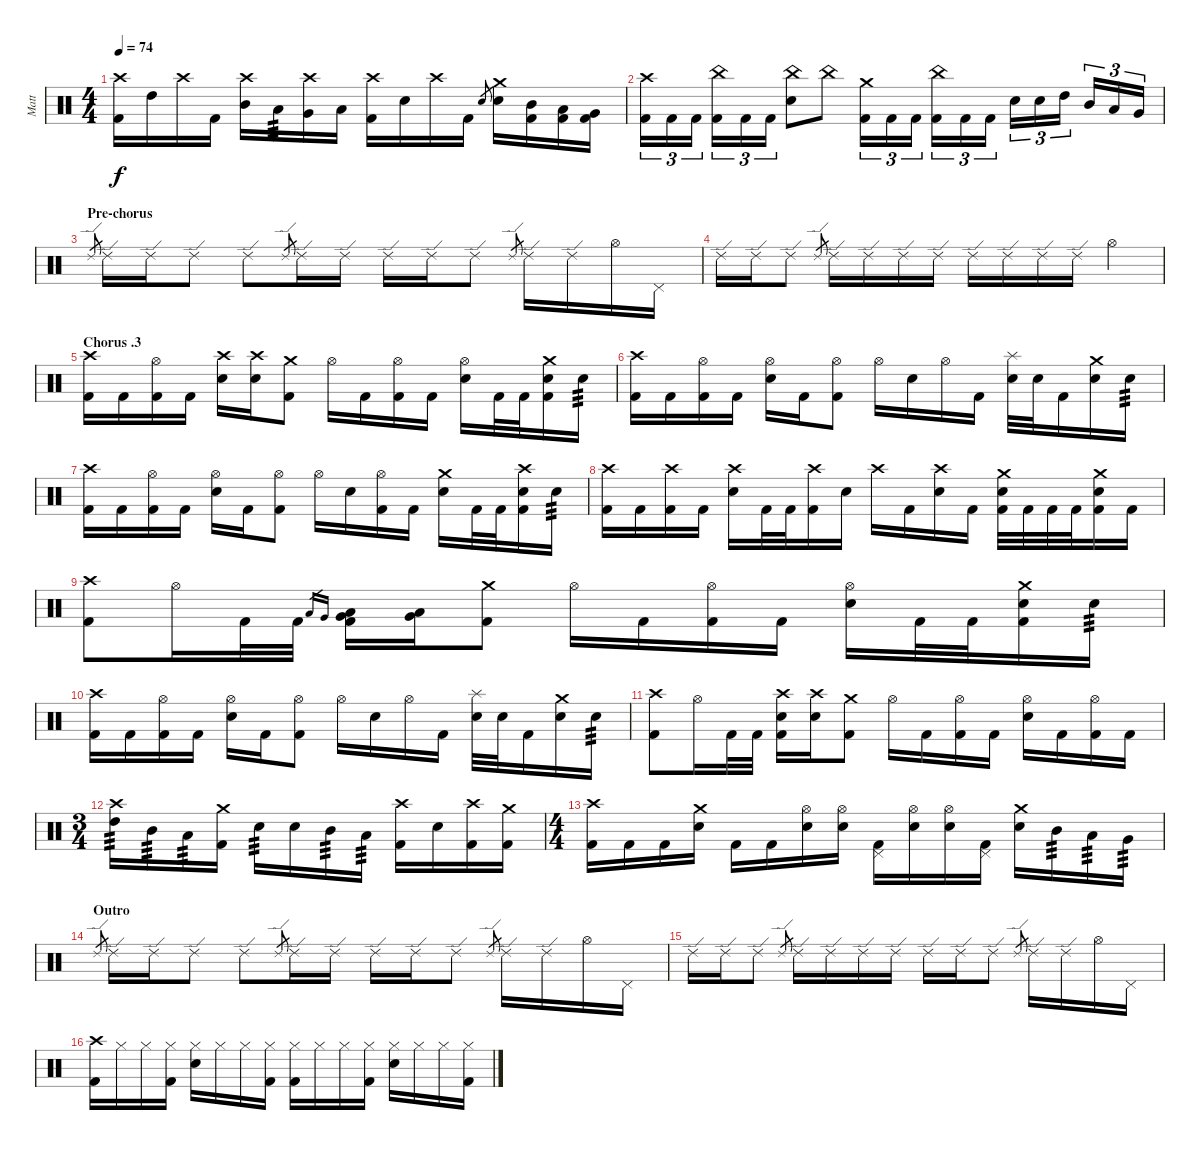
\track ("Matt" "Matt") {instrument percussion}
\staff {score}
\articulation defaults
\ts (4 4)
\tempo 74
\clef neutral
\ks c
("Crash high (hit)" "Kick (hit) 2").16{dy f} "High Tom (hit)".16 "Crash high (hit)".16 "Kick (hit) 2".16 ("Crash high (hit)" "Mid Tom (hit)").16 "Low Tom (hit)".16{tp 3} ("Crash high (hit)" "Very Low Tom (hit)").16 "Low Floor Tom (hit)".16 ("Crash high (hit)" "Kick (hit) 2").16 "Electric Snare (hit)".16 "Crash high (hit)".16 "Kick (hit) 2".16 "Electric Snare (hit)".8{gr} ("Crash medium (hit)" "Electric Snare (hit)").16 ("Mid Tom (hit)" "Kick (hit) 2").16 ("Low Tom (hit)" "Kick (hit) 2").16 ("Very Low Tom (hit)" "Kick (hit) 2").16 |
("Crash high (hit)" "Kick (hit) 2").16{tu (3 2)} "Kick (hit) 2".16{tu (3 2)} "Kick (hit) 2".16{tu (3 2)} ("China (hit)" "Kick (hit) 2").16{tu (3 2)} "Kick (hit) 2".16{tu (3 2)} "Kick (hit) 2".16{tu (3 2)} ("China (hit)" "Electric Snare (hit)").8 "China (hit)".8 ("Crash medium (hit)" "Kick (hit) 2").16{tu (3 2)} "Kick (hit) 2".16{tu (3 2)} "Kick (hit) 2".16{tu (3 2)} ("China (hit)" "Kick (hit) 2").16{tu (3 2)} "Kick (hit) 2".16{tu (3 2)} "Kick (hit) 2".16{tu (3 2)} "Electric Snare (hit)".16{tu (3 2)} "Electric Snare (hit)".16{tu (3 2)} "High Tom (hit)".16{tu (3 2)} "Mid Tom (hit)".16{tu (3 2)} "Low Tom (hit)".16{tu (3 2)} "Very Low Tom (hit)".16{tu (3 2)} |
\section ("" "Pre-chorus")
"Ride (edge) 2".8{gr} "Ride (edge) 2".16 "Ride (edge) 2".16 "Ride (edge) 2".8 "Ride (edge) 2".8 "Ride (edge) 2".8{gr} "Ride (edge) 2".16 "Ride (edge) 2".16 "Ride (edge) 2".16 "Ride (edge) 2".16 "Ride (edge) 2".8 "Ride (edge) 2".8{gr} "Ride (edge) 2".16 "Ride (edge) 2".16 "Hi-Hat (open)".16 "Pedal Hi-Hat (hit)".16 |
"Ride (edge) 2".16 "Ride (edge) 2".16 "Ride (edge) 2".8 "Ride (edge) 2".8{gr} "Ride (edge) 2".16 "Ride (edge) 2".16 "Ride (edge) 2".16 "Ride (edge) 2".16 "Ride (edge) 2".16 "Ride (edge) 2".16 "Ride (edge) 2".16 "Ride (edge) 2".16 "Hi-Hat (open)".4 |
\section ("" "Chorus .3")
("Crash high (hit)" "Kick (hit) 2").16 "Kick (hit) 2".16 ("Hi-Hat (open)" "Kick (hit) 2").16 "Kick (hit) 2".16 ("Crash high (hit)" "Electric Snare (hit)").16 ("Crash high (hit)" "Electric Snare (hit)").16 ("Crash medium (hit)" "Kick (hit) 2").8 "Hi-Hat (open)".16 "Kick (hit) 2".16 ("Hi-Hat (open)" "Kick (hit) 2").16 "Kick (hit) 2".16 ("Hi-Hat (open)" "Electric Snare (hit)").16 "Kick (hit) 2".32 "Kick (hit) 2".32 ("Crash medium (hit)" "Electric Snare (hit)" "Kick (hit) 2").16 "Electric Snare (hit)".16{tp 3} |
("Crash high (hit)" "Kick (hit) 2").16 "Kick (hit) 2".16 ("Hi-Hat (open)" "Kick (hit) 2").16 "Kick (hit) 2".16 ("Hi-Hat (open)" "Electric Snare (hit)").16 "Kick (hit) 2".16 ("Hi-Hat (open)" "Kick (hit) 2").8 "Hi-Hat (open)".16 "Electric Snare (hit)".16 "Hi-Hat (open)".16 "Kick (hit) 2".16 ("Splash (hit)" "Electric Snare (hit)").32 "Electric Snare (hit)".32 "Kick (hit) 2".16 ("Crash medium (hit)" "Electric Snare (hit)").16 "Electric Snare (hit)".16{tp 3} |
("Crash high (hit)" "Kick (hit) 2").16 "Kick (hit) 2".16 ("Hi-Hat (open)" "Kick (hit) 2").16 "Kick (hit) 2".16 ("Hi-Hat (open)" "Electric Snare (hit)").16 "Kick (hit) 2".16 ("Hi-Hat (open)" "Kick (hit) 2").8 "Hi-Hat (open)".16 "Electric Snare (hit)".16 ("Hi-Hat (open)" "Kick (hit) 2").16 "Kick (hit) 2".16 ("Crash medium (hit)" "Electric Snare (hit)").16 "Kick (hit) 2".32 "Kick (hit) 2".32 ("Crash high (hit)" "Electric Snare (hit)" "Kick (hit) 2").16 "Electric Snare (hit)".16{tp 3} |
("Crash high (hit)" "Kick (hit) 2").16 "Kick (hit) 2".16 ("Crash high (hit)" "Kick (hit) 2").16 "Kick (hit) 2".16 ("Crash high (hit)" "Electric Snare (hit)").16 "Kick (hit) 2".32 "Kick (hit) 2".32 ("Crash high (hit)" "Kick (hit) 2").16 "Electric Snare (hit)".16 "Crash high (hit)".16 "Kick (hit) 2".16 ("Crash high (hit)" "Electric Snare (hit)").16 "Kick (hit) 2".16 ("Crash medium (hit)" "Electric Snare (hit)" "Kick (hit) 2").32 "Kick (hit) 2".32 "Kick (hit) 2".32 "Kick (hit) 2".32 ("Crash medium (hit)" "Electric Snare (hit)" "Kick (hit) 2").16 "Kick (hit) 2".16 |
("Crash high (hit)" "Kick (hit) 2").8 "Hi-Hat (open)".16 "Kick (hit) 2".32 "Kick (hit) 2".32 "Low Tom (hit)".16{gr} "Very Low Tom (hit)".16{gr} ("Low Tom (hit)" "Very Low Tom (hit)" "Kick (hit) 2").16 ("Low Tom (hit)" "Very Low Tom (hit)").16 ("Crash medium (hit)" "Kick (hit) 2").8 "Hi-Hat (open)".16 "Kick (hit) 2".16 ("Hi-Hat (open)" "Kick (hit) 2").16 "Kick (hit) 2".16 ("Hi-Hat (open)" "Electric Snare (hit)").16 "Kick (hit) 2".32 "Kick (hit) 2".32 ("Crash medium (hit)" "Electric Snare (hit)" "Kick (hit) 2").16 "Electric Snare (hit)".16{tp 3} |
("Crash high (hit)" "Kick (hit) 2").16 "Kick (hit) 2".16 ("Hi-Hat (open)" "Kick (hit) 2").16 "Kick (hit) 2".16 ("Hi-Hat (open)" "Electric Snare (hit)").16 "Kick (hit) 2".16 ("Hi-Hat (open)" "Kick (hit) 2").8 "Hi-Hat (open)".16 "Electric Snare (hit)".16 "Hi-Hat (open)".16 "Kick (hit) 2".16 ("Splash (hit)" "Electric Snare (hit)").32 "Electric Snare (hit)".32 "Kick (hit) 2".16 ("Crash medium (hit)" "Electric Snare (hit)").16 "Electric Snare (hit)".16{tp 3} |
("Crash high (hit)" "Kick (hit) 2").8 "Hi-Hat (open)".16 "Kick (hit) 2".32 "Kick (hit) 2".32 ("Crash high (hit)" "Electric Snare (hit)" "Kick (hit) 2").16 ("Crash high (hit)" "Electric Snare (hit)").16 ("Crash medium (hit)" "Kick (hit) 2").8 "Hi-Hat (open)".16 "Kick (hit) 2".16 ("Hi-Hat (open)" "Kick (hit) 2").16 "Kick (hit) 2".16 ("Hi-Hat (open)" "Electric Snare (hit)").16 "Kick (hit) 2".16 ("Hi-Hat (open)" "Kick (hit) 2").16 "Kick (hit) 2".16 |
\ts (3 4)
("Crash high (hit)" "High Tom (hit)").16{tp 3} "Mid Tom (hit)".16{tp 3} "Low Tom (hit)".16{tp 3} ("Crash medium (hit)" "Kick (hit) 2").16 "Electric Snare (hit)".16{tp 3} "Electric Snare (hit)".16 "Mid Tom (hit)".16{tp 3} "Low Tom (hit)".16{tp 3} ("Crash high (hit)" "Kick (hit) 2").16 "Electric Snare (hit)".16 ("Crash high (hit)" "Kick (hit) 2").16 ("Crash medium (hit)" "Kick (hit) 2").16 |
\ts (4 4)
("Crash high (hit)" "Kick (hit) 2").16 "Kick (hit) 2".16 "Kick (hit) 2".16 ("Crash medium (hit)" "Electric Snare (hit)").16 "Kick (hit) 2".16 "Kick (hit) 2".16 ("Hi-Hat (open)" "Electric Snare (hit)").16 ("Hi-Hat (open)" "Electric Snare (hit)").16 ("Pedal Hi-Hat (hit)" "Kick (hit) 2").16 ("Hi-Hat (open)" "Electric Snare (hit)").16 ("Hi-Hat (open)" "Electric Snare (hit)").16 ("Pedal Hi-Hat (hit)" "Kick (hit) 2").16 ("Crash medium (hit)" "Electric Snare (hit)").16 "Mid Tom (hit)".16{tp 3} "Low Tom (hit)".16{tp 3} "Very Low Tom (hit)".16{tp 3} |
\section ("" "Outro")
"Ride (edge) 2".8{gr} "Ride (edge) 2".16 "Ride (edge) 2".16 "Ride (edge) 2".8 "Ride (edge) 2".8 "Ride (edge) 2".8{gr} "Ride (edge) 2".16 "Ride (edge) 2".16 "Ride (edge) 2".16 "Ride (edge) 2".16 "Ride (edge) 2".8 "Ride (edge) 2".8{gr} "Ride (edge) 2".16 "Ride (edge) 2".16 "Hi-Hat (open)".16 "Pedal Hi-Hat (hit)".16 |
"Ride (edge) 2".16 "Ride (edge) 2".16 "Ride (edge) 2".8 "Ride (edge) 2".8{gr} "Ride (edge) 2".16 "Ride (edge) 2".16 "Ride (edge) 2".16 "Ride (edge) 2".16 "Ride (edge) 2".16 "Ride (edge) 2".16 "Ride (edge) 2".8 "Ride (edge) 2".8{gr} "Ride (edge) 2".16 "Ride (edge) 2".16 "Hi-Hat (open)".16 "Pedal Hi-Hat (hit)".16 |
("Crash high (hit)" "Kick (hit) 2").16 "Hi-Hat (closed)".16 "Hi-Hat (closed)".16 ("Hi-Hat (closed)" "Kick (hit) 2").16 ("Hi-Hat (closed)" "Electric Snare (hit)").16 "Hi-Hat (closed)".16 "Hi-Hat (closed)".16 ("Hi-Hat (closed)" "Kick (hit) 2").16 ("Hi-Hat (closed)" "Kick (hit) 2").16 "Hi-Hat (closed)".16 "Hi-Hat (closed)".16 ("Hi-Hat (closed)" "Kick (hit) 2").16 ("Hi-Hat (closed)" "Electric Snare (hit)").16 "Hi-Hat (closed)".16 "Hi-Hat (closed)".16 ("Hi-Hat (closed)" "Kick (hit) 2").16
